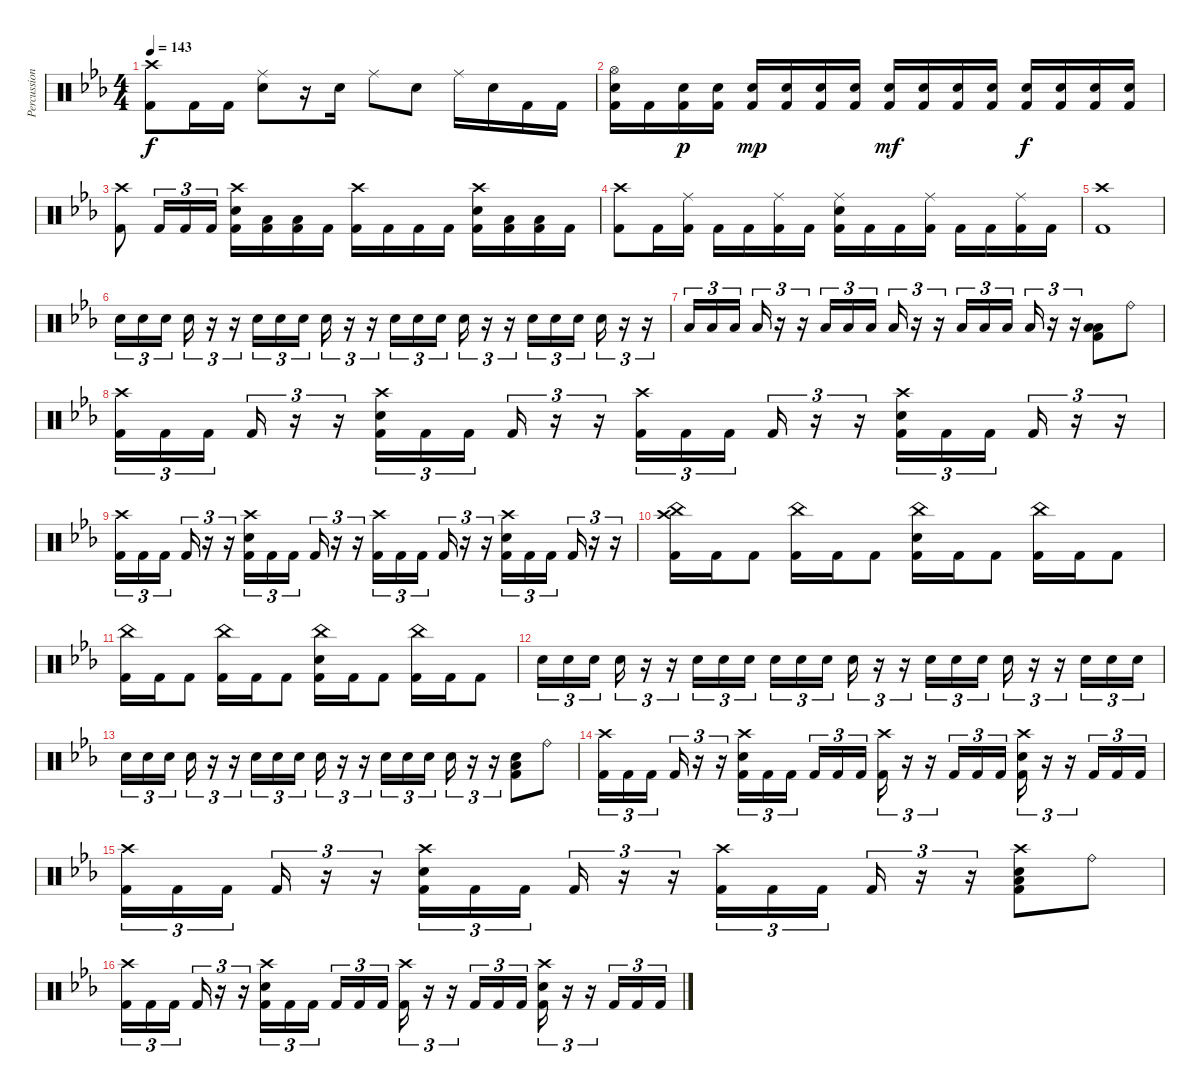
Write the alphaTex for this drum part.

\track ("Percussion" "Percussion") {instrument percussion}
\staff {score}
\articulation defaults
\ts (4 4)
\tempo 143
\clef neutral
\ks cminor
("Crash high (hit)" "Kick (hit) 2").8{dy f} "Kick (hit) 2".16 "Kick (hit) 2".16 ("Ride (middle)" "Electric Snare (hit)").8 r.16 "Electric Snare (hit)".16 "Ride (middle)".8 "Electric Snare (hit)".8 "Ride (middle)".16 "Electric Snare (hit)".16 "Kick (hit) 2".16 "Kick (hit) 2".16 |
("Hi-Hat (open)" "Electric Snare (hit)" "Kick (hit) 2").16 "Kick (hit) 2".16 ("Electric Snare (hit)" "Kick (hit) 2").16{dy p} ("Electric Snare (hit)" "Kick (hit) 2").16 ("Electric Snare (hit)" "Kick (hit) 2").16{dy mp} ("Electric Snare (hit)" "Kick (hit) 2").16 ("Electric Snare (hit)" "Kick (hit) 2").16 ("Electric Snare (hit)" "Kick (hit) 2").16 ("Electric Snare (hit)" "Kick (hit) 2").16{dy mf} ("Electric Snare (hit)" "Kick (hit) 2").16 ("Electric Snare (hit)" "Kick (hit) 2").16 ("Electric Snare (hit)" "Kick (hit) 2").16 ("Electric Snare (hit)" "Kick (hit) 2").16{dy f} ("Electric Snare (hit)" "Kick (hit) 2").16 ("Electric Snare (hit)" "Kick (hit) 2").16 ("Electric Snare (hit)" "Kick (hit) 2").16 |
("Crash high (hit)" "Kick (hit) 2").8 "Kick (hit) 2".16{tu (3 2)} "Kick (hit) 2".16{tu (3 2)} "Kick (hit) 2".16{tu (3 2)} ("Crash high (hit)" "Electric Snare (hit)" "Kick (hit) 2").16 ("Low Tom (hit)" "Kick (hit) 2").16 ("Low Tom (hit)" "Kick (hit) 2").16 "Kick (hit) 2".16 ("Crash high (hit)" "Kick (hit) 2").16 "Kick (hit) 2".16 "Kick (hit) 2".16 "Kick (hit) 2".16 ("Crash high (hit)" "Electric Snare (hit)" "Kick (hit) 2").16 ("Low Floor Tom (hit)" "Kick (hit) 2").16 ("Low Floor Tom (hit)" "Kick (hit) 2").16 "Kick (hit) 2".16 |
("Crash high (hit)" "Kick (hit) 2").8 "Kick (hit) 2".16 ("Ride (middle)" "Kick (hit) 2").16 "Kick (hit) 2".16 "Kick (hit) 2".16 ("Ride (middle)" "Kick (hit) 2").16 "Kick (hit) 2".16 ("Ride (middle)" "Electric Snare (hit)" "Kick (hit) 2").16 "Kick (hit) 2".16 "Kick (hit) 2".16 ("Ride (middle)" "Kick (hit) 2").16 "Kick (hit) 2".16 "Kick (hit) 2".16 ("Ride (middle)" "Kick (hit) 2").16 "Kick (hit) 2".16 |
("Crash high (hit)" "Kick (hit) 2").1 |
"Electric Snare (hit)".16{tu (3 2)} "Electric Snare (hit)".16{tu (3 2)} "Electric Snare (hit)".16{tu (3 2) beam splitsecondary} "Electric Snare (hit)".16{tu (3 2)} r.16{tu (3 2)} r.16{tu (3 2)} "Electric Snare (hit)".16{tu (3 2)} "Electric Snare (hit)".16{tu (3 2)} "Electric Snare (hit)".16{tu (3 2) beam splitsecondary} "Electric Snare (hit)".16{tu (3 2)} r.16{tu (3 2)} r.16{tu (3 2)} "Electric Snare (hit)".16{tu (3 2)} "Electric Snare (hit)".16{tu (3 2)} "Electric Snare (hit)".16{tu (3 2) beam splitsecondary} "Electric Snare (hit)".16{tu (3 2)} r.16{tu (3 2)} r.16{tu (3 2)} "Electric Snare (hit)".16{tu (3 2)} "Electric Snare (hit)".16{tu (3 2)} "Electric Snare (hit)".16{tu (3 2) beam splitsecondary} "Electric Snare (hit)".16{tu (3 2)} r.16{tu (3 2)} r.16{tu (3 2)} |
"Low Floor Tom (hit)".16{tu (3 2)} "Low Floor Tom (hit)".16{tu (3 2)} "Low Floor Tom (hit)".16{tu (3 2) beam splitsecondary} "Low Floor Tom (hit)".16{tu (3 2)} r.16{tu (3 2)} r.16{tu (3 2)} "Low Floor Tom (hit)".16{tu (3 2)} "Low Floor Tom (hit)".16{tu (3 2)} "Low Floor Tom (hit)".16{tu (3 2) beam splitsecondary} "Low Floor Tom (hit)".16{tu (3 2)} r.16{tu (3 2)} r.16{tu (3 2)} "Low Floor Tom (hit)".16{tu (3 2)} "Low Floor Tom (hit)".16{tu (3 2)} "Low Floor Tom (hit)".16{tu (3 2) beam splitsecondary} "Low Floor Tom (hit)".16{tu (3 2)} r.16{tu (3 2)} r.16{tu (3 2)} ("Low Tom (hit)" "Low Floor Tom (hit)" "Kick (hit) 2").8 "Ride (bell)".8 |
("Crash high (hit)" "Kick (hit) 2").16{tu (3 2)} "Kick (hit) 2".16{tu (3 2)} "Kick (hit) 2".16{tu (3 2) beam splitsecondary} "Kick (hit) 2".16{tu (3 2)} r.16{tu (3 2)} r.16{tu (3 2)} ("Crash high (hit)" "Electric Snare (hit)" "Kick (hit) 2").16{tu (3 2)} "Kick (hit) 2".16{tu (3 2)} "Kick (hit) 2".16{tu (3 2) beam splitsecondary} "Kick (hit) 2".16{tu (3 2)} r.16{tu (3 2)} r.16{tu (3 2)} ("Crash high (hit)" "Kick (hit) 2").16{tu (3 2)} "Kick (hit) 2".16{tu (3 2)} "Kick (hit) 2".16{tu (3 2) beam splitsecondary} "Kick (hit) 2".16{tu (3 2)} r.16{tu (3 2)} r.16{tu (3 2)} ("Crash high (hit)" "Electric Snare (hit)" "Kick (hit) 2").16{tu (3 2)} "Kick (hit) 2".16{tu (3 2)} "Kick (hit) 2".16{tu (3 2) beam splitsecondary} "Kick (hit) 2".16{tu (3 2)} r.16{tu (3 2)} r.16{tu (3 2)} |
("Crash high (hit)" "Kick (hit) 2").16{tu (3 2)} "Kick (hit) 2".16{tu (3 2)} "Kick (hit) 2".16{tu (3 2) beam splitsecondary} "Kick (hit) 2".16{tu (3 2)} r.16{tu (3 2)} r.16{tu (3 2)} ("Crash high (hit)" "Electric Snare (hit)" "Kick (hit) 2").16{tu (3 2)} "Kick (hit) 2".16{tu (3 2)} "Kick (hit) 2".16{tu (3 2) beam splitsecondary} "Kick (hit) 2".16{tu (3 2)} r.16{tu (3 2)} r.16{tu (3 2)} ("Crash high (hit)" "Kick (hit) 2").16{tu (3 2)} "Kick (hit) 2".16{tu (3 2)} "Kick (hit) 2".16{tu (3 2) beam splitsecondary} "Kick (hit) 2".16{tu (3 2)} r.16{tu (3 2)} r.16{tu (3 2)} ("Crash high (hit)" "Electric Snare (hit)" "Kick (hit) 2").16{tu (3 2)} "Kick (hit) 2".16{tu (3 2)} "Kick (hit) 2".16{tu (3 2) beam splitsecondary} "Kick (hit) 2".16{tu (3 2)} r.16{tu (3 2)} r.16{tu (3 2)} |
("Crash high (hit)" "China (hit)" "Kick (hit) 2").16 "Kick (hit) 2".16 "Kick (hit) 2".8 ("China (hit)" "Kick (hit) 2").16 "Kick (hit) 2".16 "Kick (hit) 2".8 ("China (hit)" "Electric Snare (hit)" "Kick (hit) 2").16 "Kick (hit) 2".16 "Kick (hit) 2".8 ("China (hit)" "Kick (hit) 2").16 "Kick (hit) 2".16 "Kick (hit) 2".8 |
("China (hit)" "Kick (hit) 2").16 "Kick (hit) 2".16 "Kick (hit) 2".8 ("China (hit)" "Kick (hit) 2").16 "Kick (hit) 2".16 "Kick (hit) 2".8 ("China (hit)" "Electric Snare (hit)" "Kick (hit) 2").16 "Kick (hit) 2".16 "Kick (hit) 2".8 ("China (hit)" "Kick (hit) 2").16 "Kick (hit) 2".16 "Kick (hit) 2".8 |
"Electric Snare (hit)".16{tu (3 2)} "Electric Snare (hit)".16{tu (3 2)} "Electric Snare (hit)".16{tu (3 2) beam splitsecondary} "Electric Snare (hit)".16{tu (3 2)} r.16{tu (3 2)} r.16{tu (3 2)} "Electric Snare (hit)".16{tu (3 2)} "Electric Snare (hit)".16{tu (3 2)} "Electric Snare (hit)".16{tu (3 2) beam splitsecondary} "Electric Snare (hit)".16{tu (3 2)} "Electric Snare (hit)".16{tu (3 2)} "Electric Snare (hit)".16{tu (3 2)} "Electric Snare (hit)".16{tu (3 2)} r.16{tu (3 2)} r.16{tu (3 2)} "Electric Snare (hit)".16{tu (3 2)} "Electric Snare (hit)".16{tu (3 2)} "Electric Snare (hit)".16{tu (3 2)} "Electric Snare (hit)".16{tu (3 2)} r.16{tu (3 2)} r.16{tu (3 2)} "Electric Snare (hit)".16{tu (3 2)} "Electric Snare (hit)".16{tu (3 2)} "Electric Snare (hit)".16{tu (3 2)} |
"Electric Snare (hit)".16{tu (3 2)} "Electric Snare (hit)".16{tu (3 2)} "Electric Snare (hit)".16{tu (3 2) beam splitsecondary} "Electric Snare (hit)".16{tu (3 2)} r.16{tu (3 2)} r.16{tu (3 2)} "Electric Snare (hit)".16{tu (3 2)} "Electric Snare (hit)".16{tu (3 2)} "Electric Snare (hit)".16{tu (3 2) beam splitsecondary} "Electric Snare (hit)".16{tu (3 2)} r.16{tu (3 2)} r.16{tu (3 2)} "Electric Snare (hit)".16{tu (3 2)} "Electric Snare (hit)".16{tu (3 2)} "Electric Snare (hit)".16{tu (3 2) beam splitsecondary} "Electric Snare (hit)".16{tu (3 2)} r.16{tu (3 2)} r.16{tu (3 2)} ("Electric Snare (hit)" "Low Floor Tom (hit)" "Kick (hit) 2").8 "Ride (bell)".8 |
("Crash high (hit)" "Kick (hit) 2").16{tu (3 2)} "Kick (hit) 2".16{tu (3 2)} "Kick (hit) 2".16{tu (3 2) beam splitsecondary} "Kick (hit) 2".16{tu (3 2)} r.16{tu (3 2)} r.16{tu (3 2)} ("Crash high (hit)" "Electric Snare (hit)" "Kick (hit) 2").16{tu (3 2)} "Kick (hit) 2".16{tu (3 2)} "Kick (hit) 2".16{tu (3 2) beam splitsecondary} "Kick (hit) 2".16{tu (3 2)} "Kick (hit) 2".16{tu (3 2)} "Kick (hit) 2".16{tu (3 2)} ("Crash high (hit)" "Kick (hit) 2").16{tu (3 2)} r.16{tu (3 2)} r.16{tu (3 2)} "Kick (hit) 2".16{tu (3 2)} "Kick (hit) 2".16{tu (3 2)} "Kick (hit) 2".16{tu (3 2)} ("Crash high (hit)" "Electric Snare (hit)" "Kick (hit) 2").16{tu (3 2)} r.16{tu (3 2)} r.16{tu (3 2)} "Kick (hit) 2".16{tu (3 2)} "Kick (hit) 2".16{tu (3 2)} "Kick (hit) 2".16{tu (3 2)} |
("Crash high (hit)" "Kick (hit) 2").16{tu (3 2)} "Kick (hit) 2".16{tu (3 2)} "Kick (hit) 2".16{tu (3 2) beam splitsecondary} "Kick (hit) 2".16{tu (3 2)} r.16{tu (3 2)} r.16{tu (3 2)} ("Crash high (hit)" "Electric Snare (hit)" "Kick (hit) 2").16{tu (3 2)} "Kick (hit) 2".16{tu (3 2)} "Kick (hit) 2".16{tu (3 2) beam splitsecondary} "Kick (hit) 2".16{tu (3 2)} r.16{tu (3 2)} r.16{tu (3 2)} ("Crash high (hit)" "Kick (hit) 2").16{tu (3 2)} "Kick (hit) 2".16{tu (3 2)} "Kick (hit) 2".16{tu (3 2) beam splitsecondary} "Kick (hit) 2".16{tu (3 2)} r.16{tu (3 2)} r.16{tu (3 2)} ("Crash high (hit)" "Electric Snare (hit)" "Low Floor Tom (hit)" "Kick (hit) 2").8 "Ride (bell)".8 |
("Crash high (hit)" "Kick (hit) 2").16{tu (3 2)} "Kick (hit) 2".16{tu (3 2)} "Kick (hit) 2".16{tu (3 2) beam splitsecondary} "Kick (hit) 2".16{tu (3 2)} r.16{tu (3 2)} r.16{tu (3 2)} ("Crash high (hit)" "Electric Snare (hit)" "Kick (hit) 2").16{tu (3 2)} "Kick (hit) 2".16{tu (3 2)} "Kick (hit) 2".16{tu (3 2) beam splitsecondary} "Kick (hit) 2".16{tu (3 2)} "Kick (hit) 2".16{tu (3 2)} "Kick (hit) 2".16{tu (3 2)} ("Crash high (hit)" "Kick (hit) 2").16{tu (3 2)} r.16{tu (3 2)} r.16{tu (3 2)} "Kick (hit) 2".16{tu (3 2)} "Kick (hit) 2".16{tu (3 2)} "Kick (hit) 2".16{tu (3 2)} ("Crash high (hit)" "Electric Snare (hit)" "Kick (hit) 2").16{tu (3 2)} r.16{tu (3 2)} r.16{tu (3 2)} "Kick (hit) 2".16{tu (3 2)} "Kick (hit) 2".16{tu (3 2)} "Kick (hit) 2".16{tu (3 2)}
